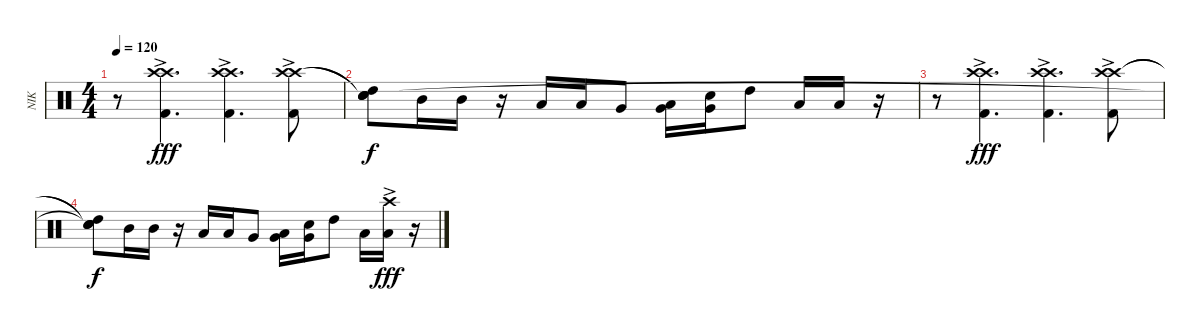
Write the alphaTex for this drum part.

\track ("NIK" "NIK") {instrument percussion}
\staff {score}
\articulation defaults
\ts (4 4)
\tempo 120
\clef neutral
\ks c
r.8{dy f} ("Crash high (hit)"{ac} "Crash high (hit)"{ac} "Kick (hit) 2"{ac}).4{d dy fff} ("Crash high (hit)"{ac} "Crash high (hit)"{ac} "Kick (hit) 2"{ac}).4{d} ("Crash high (hit)"{ac} "Crash high (hit)"{ac} "Kick (hit) 2"{ac}).8 |
("Snare (hit)"{t} "Snare (hit)"{t} "High Tom (hit)" "Snare (hit)").8{dy f} "Mid Tom (hit)".16 "Mid Tom (hit)".16 r.16 "Low Tom (hit)".16 "Low Tom (hit)".16 "Very Low Tom (hit)".8 ("Low Floor Tom (hit)" "Very Low Tom (hit)").16 ("Electric Snare (hit)" "Very Low Tom (hit)").16 "High Tom (hit)".8 "Low Floor Tom (hit)".16 "Low Floor Tom (hit)".16 r.16 |
r.8 ("Crash high (hit)"{ac} "Crash high (hit)"{ac} "Kick (hit) 2"{ac}).4{d dy fff} ("Crash high (hit)"{ac} "Crash high (hit)"{ac} "Kick (hit) 2"{ac}).4{d} ("Crash high (hit)"{ac} "Crash high (hit)"{ac} "Kick (hit) 2"{ac}).8 |
("Snare (hit)"{t} "Snare (hit)"{t} "High Tom (hit)" "Snare (hit)"{t}).8{dy f} "Mid Tom (hit)".16 "Mid Tom (hit)".16 r.16 "Low Tom (hit)".16 "Low Tom (hit)".16 "Very Low Tom (hit)".8 ("Low Floor Tom (hit)" "Very Low Tom (hit)").16 ("Electric Snare (hit)" "Very Low Tom (hit)").16 "High Tom (hit)".8 "Low Floor Tom (hit)".16 ("Crash high (hit)"{ac} "Low Floor Tom (hit)").16{dy fff} r.16
